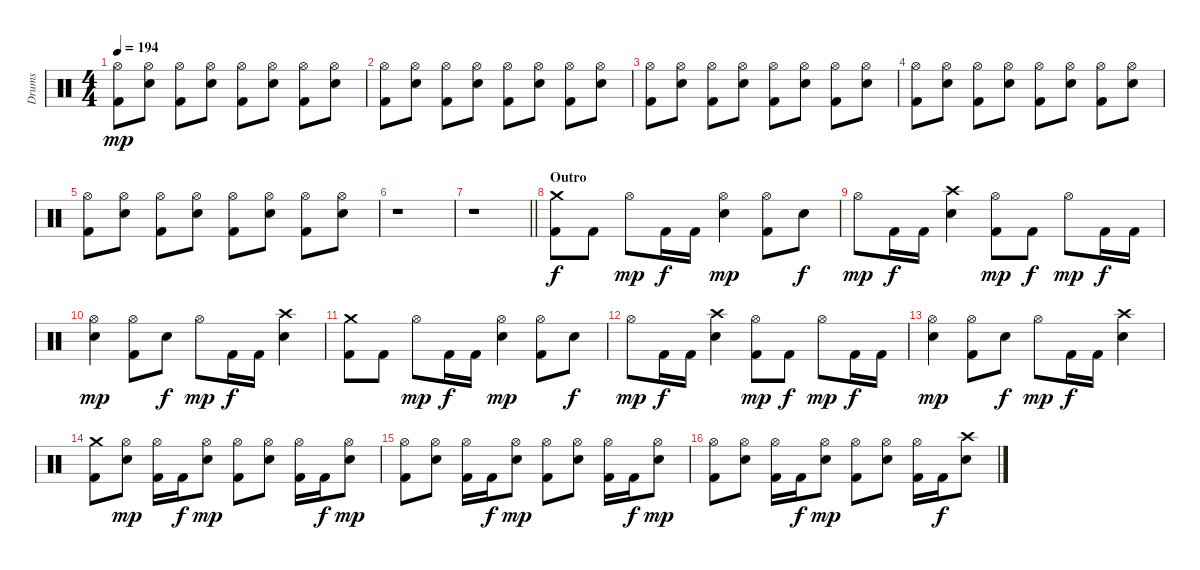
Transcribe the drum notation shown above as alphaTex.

\track ("Drums" "Drums") {instrument percussion}
\staff {score}
\articulation defaults
\ts (4 4)
\tempo 194
\clef neutral
\ks c
("Hi-Hat (open)" "Kick (hit) 2").8{dy mp} ("Hi-Hat (open)" "Snare (hit) 2").8 ("Hi-Hat (open)" "Kick (hit) 2").8 ("Hi-Hat (open)" "Snare (hit) 2").8 ("Hi-Hat (open)" "Kick (hit) 2").8 ("Hi-Hat (open)" "Snare (hit) 2").8 ("Hi-Hat (open)" "Kick (hit) 2").8 ("Hi-Hat (open)" "Snare (hit) 2").8 |
("Hi-Hat (open)" "Kick (hit) 2").8 ("Hi-Hat (open)" "Snare (hit) 2").8 ("Hi-Hat (open)" "Kick (hit) 2").8 ("Hi-Hat (open)" "Snare (hit) 2").8 ("Hi-Hat (open)" "Kick (hit) 2").8 ("Hi-Hat (open)" "Snare (hit) 2").8 ("Hi-Hat (open)" "Kick (hit) 2").8 ("Hi-Hat (open)" "Snare (hit) 2").8 |
("Hi-Hat (open)" "Kick (hit) 2").8 ("Hi-Hat (open)" "Snare (hit) 2").8 ("Hi-Hat (open)" "Kick (hit) 2").8 ("Hi-Hat (open)" "Snare (hit) 2").8 ("Hi-Hat (open)" "Kick (hit) 2").8 ("Hi-Hat (open)" "Snare (hit) 2").8 ("Hi-Hat (open)" "Kick (hit) 2").8 ("Hi-Hat (open)" "Snare (hit) 2").8 |
("Hi-Hat (open)" "Kick (hit) 2").8 ("Hi-Hat (open)" "Snare (hit) 2").8 ("Hi-Hat (open)" "Kick (hit) 2").8 ("Hi-Hat (open)" "Snare (hit) 2").8 ("Hi-Hat (open)" "Kick (hit) 2").8 ("Hi-Hat (open)" "Snare (hit) 2").8 ("Hi-Hat (open)" "Kick (hit) 2").8 ("Hi-Hat (open)" "Snare (hit) 2").8 |
("Hi-Hat (open)" "Kick (hit) 2").8 ("Hi-Hat (open)" "Snare (hit) 2").8 ("Hi-Hat (open)" "Kick (hit) 2").8 ("Hi-Hat (open)" "Snare (hit) 2").8 ("Hi-Hat (open)" "Kick (hit) 2").8 ("Hi-Hat (open)" "Snare (hit) 2").8 ("Hi-Hat (open)" "Kick (hit) 2").8 ("Hi-Hat (open)" "Snare (hit) 2").8 |
r.1 |
\barLineRight lightlight
r.1 |
\section ("" "Outro")
("Crash medium (hit)" "Kick (hit) 2").8{dy f} "Kick (hit) 2".8 "Hi-Hat (open)".8{dy mp} "Kick (hit) 2".16{dy f} "Kick (hit) 2".16 ("Hi-Hat (open)" "Snare (hit) 2").4{dy mp} ("Hi-Hat (open)" "Kick (hit) 2").8 "Snare (hit) 2".8{dy f} |
"Hi-Hat (open)".8{dy mp} "Kick (hit) 2".16{dy f} "Kick (hit) 2".16 ("Crash high (hit)" "Snare (hit) 2").4 ("Hi-Hat (open)" "Kick (hit) 2").8{dy mp} "Kick (hit) 2".8{dy f} "Hi-Hat (open)".8{dy mp} "Kick (hit) 2".16{dy f} "Kick (hit) 2".16 |
("Hi-Hat (open)" "Snare (hit) 2").4{dy mp} ("Hi-Hat (open)" "Kick (hit) 2").8 "Snare (hit) 2".8{dy f} "Hi-Hat (open)".8{dy mp} "Kick (hit) 2".16{dy f} "Kick (hit) 2".16 ("Crash high (hit)" "Snare (hit) 2").4 |
("Crash medium (hit)" "Kick (hit) 2").8 "Kick (hit) 2".8 "Hi-Hat (open)".8{dy mp} "Kick (hit) 2".16{dy f} "Kick (hit) 2".16 ("Hi-Hat (open)" "Snare (hit) 2").4{dy mp} ("Hi-Hat (open)" "Kick (hit) 2").8 "Snare (hit) 2".8{dy f} |
"Hi-Hat (open)".8{dy mp} "Kick (hit) 2".16{dy f} "Kick (hit) 2".16 ("Crash high (hit)" "Snare (hit) 2").4 ("Hi-Hat (open)" "Kick (hit) 2").8{dy mp} "Kick (hit) 2".8{dy f} "Hi-Hat (open)".8{dy mp} "Kick (hit) 2".16{dy f} "Kick (hit) 2".16 |
("Hi-Hat (open)" "Snare (hit) 2").4{dy mp} ("Hi-Hat (open)" "Kick (hit) 2").8 "Snare (hit) 2".8{dy f} "Hi-Hat (open)".8{dy mp} "Kick (hit) 2".16{dy f} "Kick (hit) 2".16 ("Crash high (hit)" "Snare (hit) 2").4 |
("Crash medium (hit)" "Kick (hit) 2").8 ("Hi-Hat (open)" "Snare (hit) 2").8{dy mp} ("Hi-Hat (open)" "Kick (hit) 2").16 "Kick (hit) 2".16{dy f} ("Hi-Hat (open)" "Snare (hit) 2").8{dy mp} ("Hi-Hat (open)" "Kick (hit) 2").8 ("Hi-Hat (open)" "Snare (hit) 2").8 ("Hi-Hat (open)" "Kick (hit) 2").16 "Kick (hit) 2".16{dy f} ("Hi-Hat (open)" "Snare (hit) 2").8{dy mp} |
("Hi-Hat (open)" "Kick (hit) 2").8 ("Hi-Hat (open)" "Snare (hit) 2").8 ("Hi-Hat (open)" "Kick (hit) 2").16 "Kick (hit) 2".16{dy f} ("Hi-Hat (open)" "Snare (hit) 2").8{dy mp} ("Hi-Hat (open)" "Kick (hit) 2").8 ("Hi-Hat (open)" "Snare (hit) 2").8 ("Hi-Hat (open)" "Kick (hit) 2").16 "Kick (hit) 2".16{dy f} ("Hi-Hat (open)" "Snare (hit) 2").8{dy mp} |
("Hi-Hat (open)" "Kick (hit) 2").8 ("Hi-Hat (open)" "Snare (hit) 2").8 ("Hi-Hat (open)" "Kick (hit) 2").16 "Kick (hit) 2".16{dy f} ("Hi-Hat (open)" "Snare (hit) 2").8{dy mp} ("Hi-Hat (open)" "Kick (hit) 2").8 ("Hi-Hat (open)" "Snare (hit) 2").8 ("Hi-Hat (open)" "Kick (hit) 2").16 "Kick (hit) 2".16{dy f} ("Crash high (hit)" "Snare (hit) 2").8
